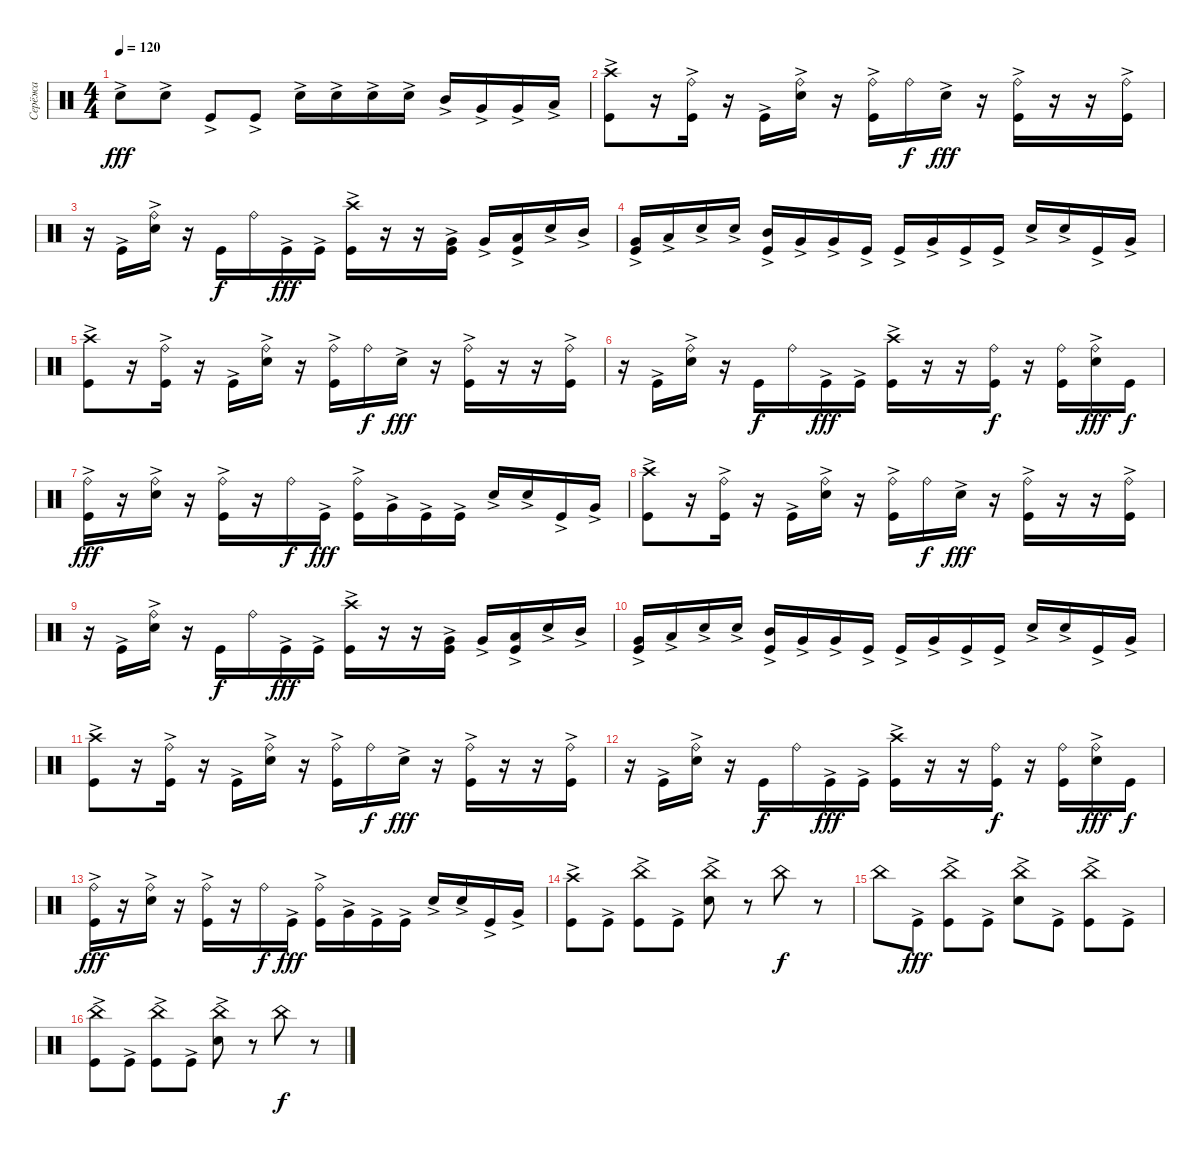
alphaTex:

\track ("Серёжа" "Серёжа") {instrument percussion}
\staff {score}
\articulation defaults
\ts (4 4)
\tempo 120
\clef neutral
\ks c "Snare (hit) 2"{ac}.8{dy fff} "Snare (hit) 2"{ac}.8 "Kick (hit)"{ac}.8 "Kick (hit)"{ac}.8 "Snare (hit) 2"{ac}.16 "Snare (hit) 2"{ac}.16 "Snare (hit) 2"{ac}.16 "Snare (hit) 2"{ac}.16 "Mid Tom (hit)"{ac}.16 "Very Low Tom (hit)"{ac}.16 "Very Low Tom (hit)"{ac}.16 "Low Tom (hit)"{ac}.16
|
("Crash high (hit)"{ac} "Kick (hit)"{ac}).8 r.16 ("Ride (bell)" "Kick (hit)"{ac}).16 r.16 "Kick (hit)"{ac}.16 ("Ride (bell)" "Snare (hit) 2"{ac}).16 r.16 ("Ride (bell)" "Kick (hit)"{ac}).16 "Ride (bell)".16{dy f} "Snare (hit) 2"{ac}.16{dy fff} r.16 ("Ride (bell)" "Kick (hit)"{ac}).16 r.16 r.16 ("Ride (bell)" "Kick (hit)"{ac}).16 |
r.16 "Kick (hit)"{ac}.16 ("Ride (bell)" "Snare (hit) 2"{ac}).16 r.16 "Kick (hit)".16{dy f} "Ride (bell)".16 "Kick (hit)"{ac}.16{dy fff} "Kick (hit)"{ac}.16 ("Crash high (hit)"{ac} "Kick (hit)"{ac}).16 r.16 r.16 ("Kick (hit)" "Very Low Tom (hit)"{ac}).16 "Very Low Tom (hit)"{ac}.16 ("Kick (hit)" "Low Tom (hit)"{ac}).16 "Snare (hit) 2"{ac}.16 "Mid Tom (hit)"{ac}.16 |
("Kick (hit)"{ac} "Very Low Tom (hit)"{ac}).16 "Low Tom (hit)"{ac}.16 "Snare (hit) 2"{ac}.16 "Snare (hit) 2"{ac}.16 ("Kick (hit)"{ac} "Mid Tom (hit)"{ac}).16 "Very Low Tom (hit)"{ac}.16 "Very Low Tom (hit)"{ac}.16 "Kick (hit)"{ac}.16 "Kick (hit)"{ac}.16 "Very Low Tom (hit)"{ac}.16 "Kick (hit)"{ac}.16 "Kick (hit)"{ac}.16 "Snare (hit) 2"{ac}.16 "Snare (hit) 2"{ac}.16 "Kick (hit)"{ac}.16 "Very Low Tom (hit)"{ac}.16 |
("Crash high (hit)"{ac} "Kick (hit)"{ac}).8 r.16 ("Ride (bell)" "Kick (hit)"{ac}).16 r.16 "Kick (hit)"{ac}.16 ("Ride (bell)" "Snare (hit) 2"{ac}).16 r.16 ("Ride (bell)" "Kick (hit)"{ac}).16 "Ride (bell)".16{dy f} "Snare (hit) 2"{ac}.16{dy fff} r.16 ("Ride (bell)" "Kick (hit)"{ac}).16 r.16 r.16 ("Ride (bell)" "Kick (hit)"{ac}).16 |
r.16 "Kick (hit)"{ac}.16 ("Ride (bell)" "Snare (hit) 2"{ac}).16 r.16 "Kick (hit)".16{dy f} "Ride (bell)".16 "Kick (hit)"{ac}.16{dy fff} "Kick (hit)"{ac}.16 ("Crash high (hit)"{ac} "Kick (hit)"{ac}).16 r.16 r.16 ("Ride (bell)" "Kick (hit)").16{dy f} r.16 ("Ride (bell)" "Kick (hit)").16 ("Ride (bell)" "Snare (hit) 2"{ac}).16{dy fff} "Kick (hit)".16{dy f} |
("Ride (bell)" "Kick (hit)"{ac}).16{dy fff} r.16 ("Ride (bell)" "Snare (hit) 2"{ac}).16 r.16 ("Ride (bell)" "Kick (hit)"{ac}).16 r.16 "Ride (bell)".16{dy f} "Kick (hit)"{ac}.16{dy fff} ("Ride (bell)" "Kick (hit)"{ac}).16 "Very Low Tom (hit)"{ac}.16 "Kick (hit)"{ac}.16 "Kick (hit)"{ac}.16 "Snare (hit) 2"{ac}.16 "Snare (hit) 2"{ac}.16 "Kick (hit)"{ac}.16 "Very Low Tom (hit)"{ac}.16 |
("Crash high (hit)"{ac} "Kick (hit)"{ac}).8 r.16 ("Ride (bell)" "Kick (hit)"{ac}).16 r.16 "Kick (hit)"{ac}.16 ("Ride (bell)" "Snare (hit) 2"{ac}).16 r.16 ("Ride (bell)" "Kick (hit)"{ac}).16 "Ride (bell)".16{dy f} "Snare (hit) 2"{ac}.16{dy fff} r.16 ("Ride (bell)" "Kick (hit)"{ac}).16 r.16 r.16 ("Ride (bell)" "Kick (hit)"{ac}).16 |
r.16 "Kick (hit)"{ac}.16 ("Ride (bell)" "Snare (hit) 2"{ac}).16 r.16 "Kick (hit)".16{dy f} "Ride (bell)".16 "Kick (hit)"{ac}.16{dy fff} "Kick (hit)"{ac}.16 ("Crash high (hit)"{ac} "Kick (hit)"{ac}).16 r.16 r.16 ("Kick (hit)" "Very Low Tom (hit)"{ac}).16 "Very Low Tom (hit)"{ac}.16 ("Kick (hit)" "Low Tom (hit)"{ac}).16 "Snare (hit) 2"{ac}.16 "Mid Tom (hit)"{ac}.16 |
("Kick (hit)"{ac} "Very Low Tom (hit)"{ac}).16 "Low Tom (hit)"{ac}.16 "Snare (hit) 2"{ac}.16 "Snare (hit) 2"{ac}.16 ("Kick (hit)"{ac} "Mid Tom (hit)"{ac}).16 "Very Low Tom (hit)"{ac}.16 "Very Low Tom (hit)"{ac}.16 "Kick (hit)"{ac}.16 "Kick (hit)"{ac}.16 "Very Low Tom (hit)"{ac}.16 "Kick (hit)"{ac}.16 "Kick (hit)"{ac}.16 "Snare (hit) 2"{ac}.16 "Snare (hit) 2"{ac}.16 "Kick (hit)"{ac}.16 "Very Low Tom (hit)"{ac}.16 |
("Crash high (hit)"{ac} "Kick (hit)"{ac}).8 r.16 ("Ride (bell)" "Kick (hit)"{ac}).16 r.16 "Kick (hit)"{ac}.16 ("Ride (bell)" "Snare (hit) 2"{ac}).16 r.16 ("Ride (bell)" "Kick (hit)"{ac}).16 "Ride (bell)".16{dy f} "Snare (hit) 2"{ac}.16{dy fff} r.16 ("Ride (bell)" "Kick (hit)"{ac}).16 r.16 r.16 ("Ride (bell)" "Kick (hit)"{ac}).16 |
r.16 "Kick (hit)"{ac}.16 ("Ride (bell)" "Snare (hit) 2"{ac}).16 r.16 "Kick (hit)".16{dy f} "Ride (bell)".16 "Kick (hit)"{ac}.16{dy fff} "Kick (hit)"{ac}.16 ("Crash high (hit)"{ac} "Kick (hit)"{ac}).16 r.16 r.16 ("Ride (bell)" "Kick (hit)").16{dy f} r.16 ("Ride (bell)" "Kick (hit)").16 ("Ride (bell)" "Snare (hit) 2"{ac}).16{dy fff} "Kick (hit)".16{dy f} |
("Ride (bell)" "Kick (hit)"{ac}).16{dy fff} r.16 ("Ride (bell)" "Snare (hit) 2"{ac}).16 r.16 ("Ride (bell)" "Kick (hit)"{ac}).16 r.16 "Ride (bell)".16{dy f} "Kick (hit)"{ac}.16{dy fff} ("Ride (bell)" "Kick (hit)"{ac}).16 "Very Low Tom (hit)"{ac}.16 "Kick (hit)"{ac}.16 "Kick (hit)"{ac}.16 "Snare (hit) 2"{ac}.16 "Snare (hit) 2"{ac}.16 "Kick (hit)"{ac}.16 "Very Low Tom (hit)"{ac}.16 |
("Crash high (hit)"{ac} "Kick (hit)"{ac}).8 "Kick (hit)"{ac}.8 ("China (hit)" "Kick (hit)"{ac}).8 "Kick (hit)"{ac}.8 ("China (hit)" "Snare (hit) 2"{ac}).8 r.8 "China (hit)".8{dy f} r.8 |
"China (hit)".8 "Kick (hit)"{ac}.8{dy fff} ("China (hit)" "Kick (hit)"{ac}).8 "Kick (hit)"{ac}.8 ("China (hit)" "Snare (hit) 2"{ac}).8 "Kick (hit)"{ac}.8 ("China (hit)" "Kick (hit)"{ac}).8 "Kick (hit)"{ac}.8 |
("China (hit)" "Kick (hit)"{ac}).8 "Kick (hit)"{ac}.8 ("China (hit)" "Kick (hit)"{ac}).8 "Kick (hit)"{ac}.8 ("China (hit)" "Snare (hit) 2"{ac}).8 r.8 "China (hit)".8{dy f} r.8
